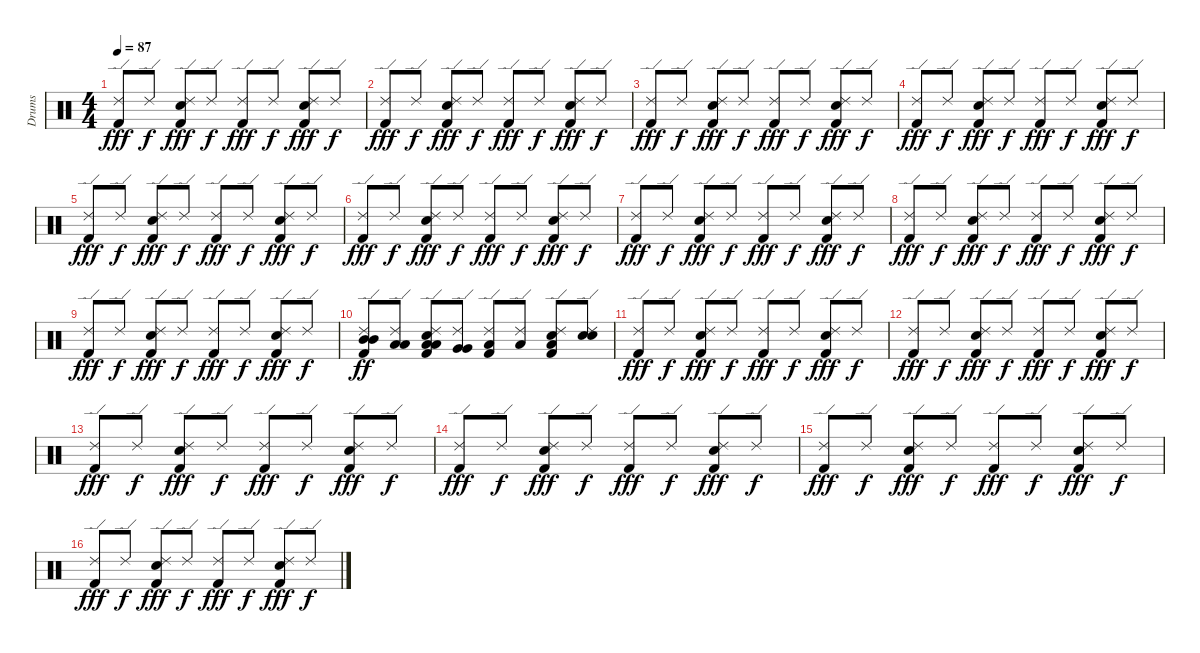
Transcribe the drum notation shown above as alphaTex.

\track ("Drums" "Drums") {instrument percussion}
\staff {score}
\articulation defaults
\ts (4 4)
\tempo 87
\clef neutral
\ks c
("Kick (hit) 2" "Ride (edge) 2").8{dy fff} "Ride (edge) 2".8{dy f} ("Electric Snare (hit)" "Kick (hit) 2" "Ride (edge) 2").8{dy fff} "Ride (edge) 2".8{dy f} ("Kick (hit) 2" "Ride (edge) 2").8{dy fff} "Ride (edge) 2".8{dy f} ("Electric Snare (hit)" "Kick (hit) 2" "Ride (edge) 2").8{dy fff} "Ride (edge) 2".8{dy f} |
("Kick (hit) 2" "Ride (edge) 2").8{dy fff} "Ride (edge) 2".8{dy f} ("Electric Snare (hit)" "Kick (hit) 2" "Ride (edge) 2").8{dy fff} "Ride (edge) 2".8{dy f} ("Kick (hit) 2" "Ride (edge) 2").8{dy fff} "Ride (edge) 2".8{dy f} ("Electric Snare (hit)" "Kick (hit) 2" "Ride (edge) 2").8{dy fff} "Ride (edge) 2".8{dy f} |
("Kick (hit) 2" "Ride (edge) 2").8{dy fff} "Ride (edge) 2".8{dy f} ("Electric Snare (hit)" "Kick (hit) 2" "Ride (edge) 2").8{dy fff} "Ride (edge) 2".8{dy f} ("Kick (hit) 2" "Ride (edge) 2").8{dy fff} "Ride (edge) 2".8{dy f} ("Electric Snare (hit)" "Kick (hit) 2" "Ride (edge) 2").8{dy fff} "Ride (edge) 2".8{dy f} |
("Kick (hit) 2" "Ride (edge) 2").8{dy fff} "Ride (edge) 2".8{dy f} ("Electric Snare (hit)" "Kick (hit) 2" "Ride (edge) 2").8{dy fff} "Ride (edge) 2".8{dy f} ("Kick (hit) 2" "Ride (edge) 2").8{dy fff} "Ride (edge) 2".8{dy f} ("Electric Snare (hit)" "Kick (hit) 2" "Ride (edge) 2").8{dy fff} "Ride (edge) 2".8{dy f} |
("Kick (hit) 2" "Ride (edge) 2").8{dy fff} "Ride (edge) 2".8{dy f} ("Electric Snare (hit)" "Kick (hit) 2" "Ride (edge) 2").8{dy fff} "Ride (edge) 2".8{dy f} ("Kick (hit) 2" "Ride (edge) 2").8{dy fff} "Ride (edge) 2".8{dy f} ("Electric Snare (hit)" "Kick (hit) 2" "Ride (edge) 2").8{dy fff} "Ride (edge) 2".8{dy f} |
("Kick (hit) 2" "Ride (edge) 2").8{dy fff} "Ride (edge) 2".8{dy f} ("Electric Snare (hit)" "Kick (hit) 2" "Ride (edge) 2").8{dy fff} "Ride (edge) 2".8{dy f} ("Kick (hit) 2" "Ride (edge) 2").8{dy fff} "Ride (edge) 2".8{dy f} ("Electric Snare (hit)" "Kick (hit) 2" "Ride (edge) 2").8{dy fff} "Ride (edge) 2".8{dy f} |
("Kick (hit) 2" "Ride (edge) 2").8{dy fff} "Ride (edge) 2".8{dy f} ("Electric Snare (hit)" "Kick (hit) 2" "Ride (edge) 2").8{dy fff} "Ride (edge) 2".8{dy f} ("Kick (hit) 2" "Ride (edge) 2").8{dy fff} "Ride (edge) 2".8{dy f} ("Electric Snare (hit)" "Kick (hit) 2" "Ride (edge) 2").8{dy fff} "Ride (edge) 2".8{dy f} |
("Kick (hit) 2" "Ride (edge) 2").8{dy fff} "Ride (edge) 2".8{dy f} ("Electric Snare (hit)" "Kick (hit) 2" "Ride (edge) 2").8{dy fff} "Ride (edge) 2".8{dy f} ("Kick (hit) 2" "Ride (edge) 2").8{dy fff} "Ride (edge) 2".8{dy f} ("Electric Snare (hit)" "Kick (hit) 2" "Ride (edge) 2").8{dy fff} "Ride (edge) 2".8{dy f} |
("Kick (hit) 2" "Ride (edge) 2").8{dy fff} "Ride (edge) 2".8{dy f} ("Electric Snare (hit)" "Kick (hit) 2" "Ride (edge) 2").8{dy fff} "Ride (edge) 2".8{dy f} ("Kick (hit) 2" "Ride (edge) 2").8{dy fff} "Ride (edge) 2".8{dy f} ("Electric Snare (hit)" "Kick (hit) 2" "Ride (edge) 2").8{dy fff} "Ride (edge) 2".8{dy f} |
("Kick (hit) 2" "Ride (edge) 2" "Mid Tom (hit)" "Mid Tom (hit)").8{dy ff} ("Ride (edge) 2" "Low Tom (hit)" "Low Tom (hit)").8 ("Electric Snare (hit)" "Kick (hit) 2" "Ride (edge) 2" "Low Tom (hit)" "Low Tom (hit)").8 ("Ride (edge) 2" "Very Low Tom (hit)" "Very Low Tom (hit)").8 ("Kick (hit) 2" "Ride (edge) 2" "Low Floor Tom (hit)").8 ("Ride (edge) 2" "Low Floor Tom (hit)").8 ("Electric Snare (hit)" "Kick (hit) 2" "Ride (edge) 2" "Low Floor Tom (hit)").8 ("Electric Snare (hit)" "Ride (edge) 2" "Electric Snare (hit)").8 |
("Kick (hit) 2" "Ride (edge) 2").8{dy fff} "Ride (edge) 2".8{dy f} ("Electric Snare (hit)" "Kick (hit) 2" "Ride (edge) 2").8{dy fff} "Ride (edge) 2".8{dy f} ("Kick (hit) 2" "Ride (edge) 2").8{dy fff} "Ride (edge) 2".8{dy f} ("Electric Snare (hit)" "Kick (hit) 2" "Ride (edge) 2").8{dy fff} "Ride (edge) 2".8{dy f} |
("Kick (hit) 2" "Ride (edge) 2").8{dy fff} "Ride (edge) 2".8{dy f} ("Electric Snare (hit)" "Kick (hit) 2" "Ride (edge) 2").8{dy fff} "Ride (edge) 2".8{dy f} ("Kick (hit) 2" "Ride (edge) 2").8{dy fff} "Ride (edge) 2".8{dy f} ("Electric Snare (hit)" "Kick (hit) 2" "Ride (edge) 2").8{dy fff} "Ride (edge) 2".8{dy f} |
("Kick (hit) 2" "Ride (edge) 2").8{dy fff} "Ride (edge) 2".8{dy f} ("Electric Snare (hit)" "Kick (hit) 2" "Ride (edge) 2").8{dy fff} "Ride (edge) 2".8{dy f} ("Kick (hit) 2" "Ride (edge) 2").8{dy fff} "Ride (edge) 2".8{dy f} ("Electric Snare (hit)" "Kick (hit) 2" "Ride (edge) 2").8{dy fff} "Ride (edge) 2".8{dy f} |
("Kick (hit) 2" "Ride (edge) 2").8{dy fff} "Ride (edge) 2".8{dy f} ("Electric Snare (hit)" "Kick (hit) 2" "Ride (edge) 2").8{dy fff} "Ride (edge) 2".8{dy f} ("Kick (hit) 2" "Ride (edge) 2").8{dy fff} "Ride (edge) 2".8{dy f} ("Electric Snare (hit)" "Kick (hit) 2" "Ride (edge) 2").8{dy fff} "Ride (edge) 2".8{dy f} |
("Kick (hit) 2" "Ride (edge) 2").8{dy fff} "Ride (edge) 2".8{dy f} ("Electric Snare (hit)" "Kick (hit) 2" "Ride (edge) 2").8{dy fff} "Ride (edge) 2".8{dy f} ("Kick (hit) 2" "Ride (edge) 2").8{dy fff} "Ride (edge) 2".8{dy f} ("Electric Snare (hit)" "Kick (hit) 2" "Ride (edge) 2").8{dy fff} "Ride (edge) 2".8{dy f} |
("Kick (hit) 2" "Ride (edge) 2").8{dy fff} "Ride (edge) 2".8{dy f} ("Electric Snare (hit)" "Kick (hit) 2" "Ride (edge) 2").8{dy fff} "Ride (edge) 2".8{dy f} ("Kick (hit) 2" "Ride (edge) 2").8{dy fff} "Ride (edge) 2".8{dy f} ("Electric Snare (hit)" "Kick (hit) 2" "Ride (edge) 2").8{dy fff} "Ride (edge) 2".8{dy f}
